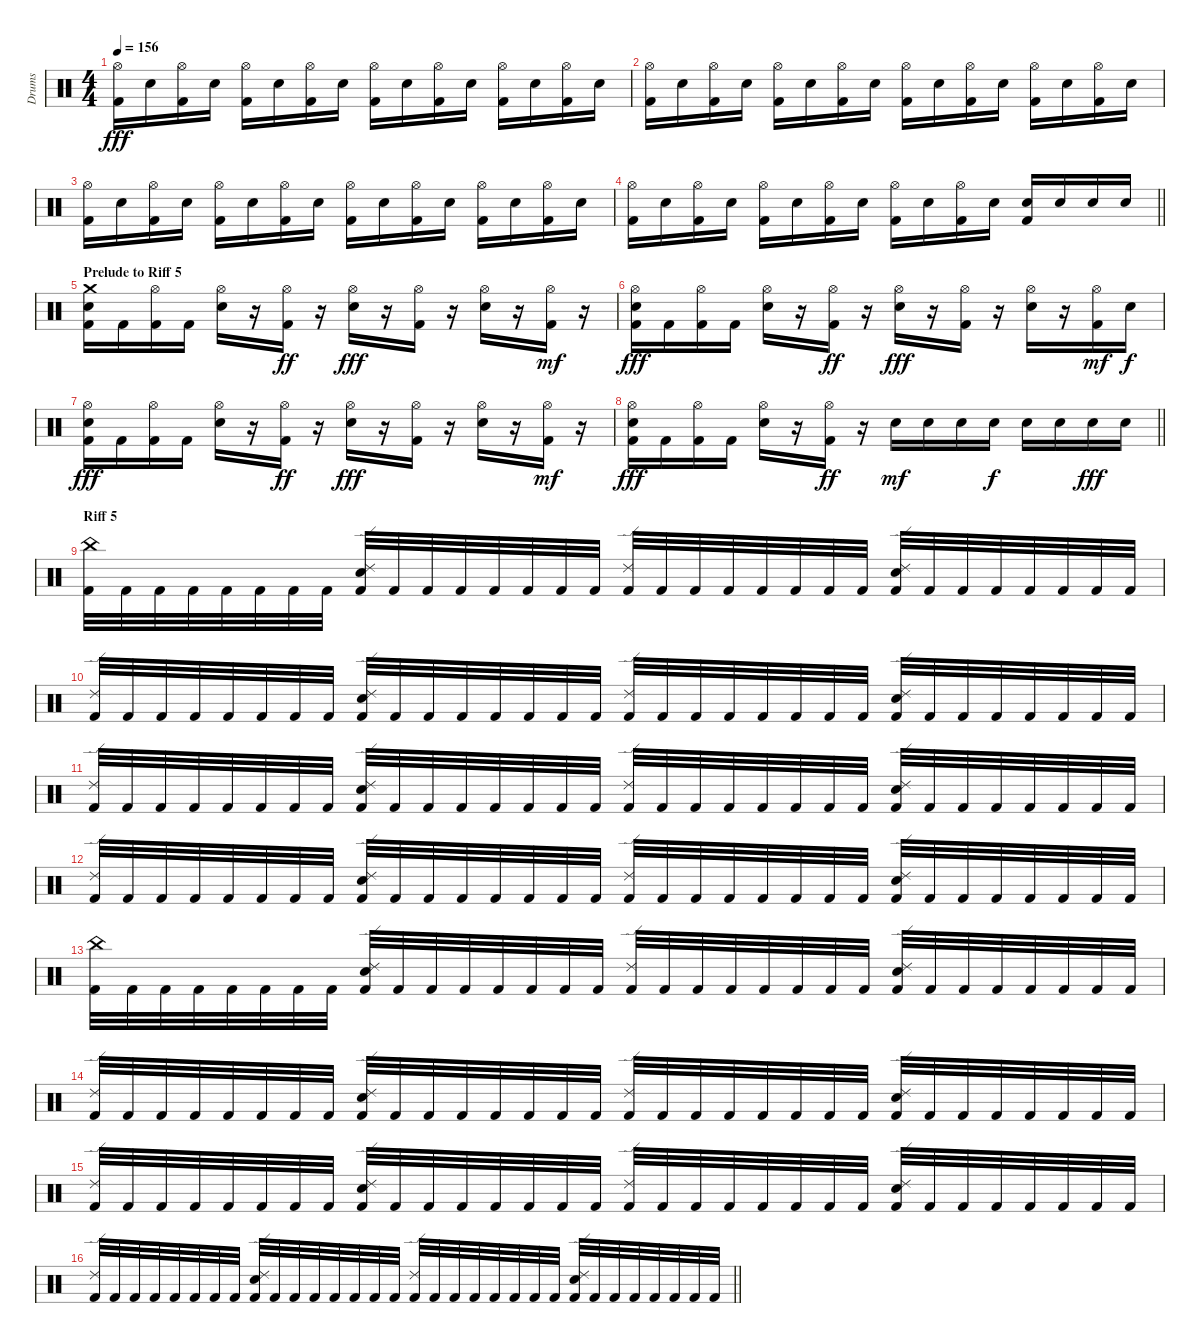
\track ("Drums" "Drums") {instrument percussion}
\staff {score}
\articulation defaults
\ts (4 4)
\tempo 156
\clef neutral
\ks c
("Kick (hit) 2" "Hi-Hat (open)").16{dy fff} "Snare (hit) 2".16 ("Kick (hit) 2" "Hi-Hat (open)").16 "Snare (hit) 2".16 ("Kick (hit) 2" "Hi-Hat (open)").16 "Snare (hit) 2".16 ("Kick (hit) 2" "Hi-Hat (open)").16 "Snare (hit) 2".16 ("Kick (hit) 2" "Hi-Hat (open)").16 "Snare (hit) 2".16 ("Kick (hit) 2" "Hi-Hat (open)").16 "Snare (hit) 2".16 ("Kick (hit) 2" "Hi-Hat (open)").16 "Snare (hit) 2".16 ("Kick (hit) 2" "Hi-Hat (open)").16 "Snare (hit) 2".16 |
("Kick (hit) 2" "Hi-Hat (open)").16 "Snare (hit) 2".16 ("Kick (hit) 2" "Hi-Hat (open)").16 "Snare (hit) 2".16 ("Kick (hit) 2" "Hi-Hat (open)").16 "Snare (hit) 2".16 ("Kick (hit) 2" "Hi-Hat (open)").16 "Snare (hit) 2".16 ("Kick (hit) 2" "Hi-Hat (open)").16 "Snare (hit) 2".16 ("Kick (hit) 2" "Hi-Hat (open)").16 "Snare (hit) 2".16 ("Kick (hit) 2" "Hi-Hat (open)").16 "Snare (hit) 2".16 ("Kick (hit) 2" "Hi-Hat (open)").16 "Snare (hit) 2".16 |
("Kick (hit) 2" "Hi-Hat (open)").16 "Snare (hit) 2".16 ("Kick (hit) 2" "Hi-Hat (open)").16 "Snare (hit) 2".16 ("Kick (hit) 2" "Hi-Hat (open)").16 "Snare (hit) 2".16 ("Kick (hit) 2" "Hi-Hat (open)").16 "Snare (hit) 2".16 ("Kick (hit) 2" "Hi-Hat (open)").16 "Snare (hit) 2".16 ("Kick (hit) 2" "Hi-Hat (open)").16 "Snare (hit) 2".16 ("Kick (hit) 2" "Hi-Hat (open)").16 "Snare (hit) 2".16 ("Kick (hit) 2" "Hi-Hat (open)").16 "Snare (hit) 2".16 |
\barLineRight lightlight
("Kick (hit) 2" "Hi-Hat (open)").16 "Snare (hit) 2".16 ("Kick (hit) 2" "Hi-Hat (open)").16 "Snare (hit) 2".16 ("Kick (hit) 2" "Hi-Hat (open)").16 "Snare (hit) 2".16 ("Kick (hit) 2" "Hi-Hat (open)").16 "Snare (hit) 2".16 ("Kick (hit) 2" "Hi-Hat (open)").16 "Snare (hit) 2".16 ("Kick (hit) 2" "Hi-Hat (open)").16 "Snare (hit) 2".16 ("Kick (hit) 2" "Snare (hit) 2").16 "Snare (hit) 2".16 "Snare (hit) 2".16 "Snare (hit) 2".16 |
\section ("" "Prelude to Riff 5")
("Kick (hit) 2" "Snare (hit) 2" "Crash medium (hit)").16 "Kick (hit) 2".16 ("Kick (hit) 2" "Hi-Hat (open)").16 "Kick (hit) 2".16 ("Snare (hit) 2" "Hi-Hat (open)").16 r.16 ("Kick (hit) 2" "Hi-Hat (open)").16{dy ff} r.16 ("Snare (hit) 2" "Hi-Hat (open)").16{dy fff} r.16 ("Kick (hit) 2" "Hi-Hat (open)").16 r.16 ("Snare (hit) 2" "Hi-Hat (open)").16 r.16 ("Kick (hit) 2" "Hi-Hat (open)").16{dy mf} r.16 |
("Kick (hit) 2" "Snare (hit) 2" "Hi-Hat (open)").16{dy fff} "Kick (hit) 2".16 ("Kick (hit) 2" "Hi-Hat (open)").16 "Kick (hit) 2".16 ("Snare (hit) 2" "Hi-Hat (open)").16 r.16 ("Kick (hit) 2" "Hi-Hat (open)").16{dy ff} r.16 ("Snare (hit) 2" "Hi-Hat (open)").16{dy fff} r.16 ("Kick (hit) 2" "Hi-Hat (open)").16 r.16 ("Snare (hit) 2" "Hi-Hat (open)").16 r.16 ("Kick (hit) 2" "Hi-Hat (open)").16{dy mf} "Snare (hit) 2".16{dy f} |
("Kick (hit) 2" "Snare (hit) 2" "Hi-Hat (open)").16{dy fff} "Kick (hit) 2".16 ("Kick (hit) 2" "Hi-Hat (open)").16 "Kick (hit) 2".16 ("Snare (hit) 2" "Hi-Hat (open)").16 r.16 ("Kick (hit) 2" "Hi-Hat (open)").16{dy ff} r.16 ("Snare (hit) 2" "Hi-Hat (open)").16{dy fff} r.16 ("Kick (hit) 2" "Hi-Hat (open)").16 r.16 ("Snare (hit) 2" "Hi-Hat (open)").16 r.16 ("Kick (hit) 2" "Hi-Hat (open)").16{dy mf} r.16 |
\barLineRight lightlight
("Kick (hit) 2" "Snare (hit) 2" "Hi-Hat (open)").16{dy fff} "Kick (hit) 2".16 ("Kick (hit) 2" "Hi-Hat (open)").16 "Kick (hit) 2".16 ("Snare (hit) 2" "Hi-Hat (open)").16 r.16 ("Kick (hit) 2" "Hi-Hat (open)").16{dy ff} r.16 "Snare (hit) 2".16{dy mf} "Snare (hit) 2".16 "Snare (hit) 2".16 "Snare (hit) 2".16{dy f} "Snare (hit) 2".16 "Snare (hit) 2".16 "Snare (hit) 2".16{dy fff} "Snare (hit) 2".16 |
\section ("" "Riff 5")
("Kick (hit) 2" "China (hit)").32 "Kick (hit) 2".32 "Kick (hit) 2".32 "Kick (hit) 2".32 "Kick (hit) 2".32 "Kick (hit) 2".32 "Kick (hit) 2".32 "Kick (hit) 2".32 ("Kick (hit) 2" "Snare (hit) 2" "Ride (edge) 2").32 "Kick (hit) 2".32 "Kick (hit) 2".32 "Kick (hit) 2".32 "Kick (hit) 2".32 "Kick (hit) 2".32 "Kick (hit) 2".32 "Kick (hit) 2".32 ("Kick (hit) 2" "Ride (edge) 2").32 "Kick (hit) 2".32 "Kick (hit) 2".32 "Kick (hit) 2".32 "Kick (hit) 2".32 "Kick (hit) 2".32 "Kick (hit) 2".32 "Kick (hit) 2".32 ("Kick (hit) 2" "Snare (hit) 2" "Ride (edge) 2").32 "Kick (hit) 2".32 "Kick (hit) 2".32 "Kick (hit) 2".32 "Kick (hit) 2".32 "Kick (hit) 2".32 "Kick (hit) 2".32 "Kick (hit) 2".32 |
("Kick (hit) 2" "Ride (edge) 2").32 "Kick (hit) 2".32 "Kick (hit) 2".32 "Kick (hit) 2".32 "Kick (hit) 2".32 "Kick (hit) 2".32 "Kick (hit) 2".32 "Kick (hit) 2".32 ("Kick (hit) 2" "Snare (hit) 2" "Ride (edge) 2").32 "Kick (hit) 2".32 "Kick (hit) 2".32 "Kick (hit) 2".32 "Kick (hit) 2".32 "Kick (hit) 2".32 "Kick (hit) 2".32 "Kick (hit) 2".32 ("Kick (hit) 2" "Ride (edge) 2").32 "Kick (hit) 2".32 "Kick (hit) 2".32 "Kick (hit) 2".32 "Kick (hit) 2".32 "Kick (hit) 2".32 "Kick (hit) 2".32 "Kick (hit) 2".32 ("Kick (hit) 2" "Snare (hit) 2" "Ride (edge) 2").32 "Kick (hit) 2".32 "Kick (hit) 2".32 "Kick (hit) 2".32 "Kick (hit) 2".32 "Kick (hit) 2".32 "Kick (hit) 2".32 "Kick (hit) 2".32 |
("Kick (hit) 2" "Ride (edge) 2").32 "Kick (hit) 2".32 "Kick (hit) 2".32 "Kick (hit) 2".32 "Kick (hit) 2".32 "Kick (hit) 2".32 "Kick (hit) 2".32 "Kick (hit) 2".32 ("Kick (hit) 2" "Snare (hit) 2" "Ride (edge) 2").32 "Kick (hit) 2".32 "Kick (hit) 2".32 "Kick (hit) 2".32 "Kick (hit) 2".32 "Kick (hit) 2".32 "Kick (hit) 2".32 "Kick (hit) 2".32 ("Kick (hit) 2" "Ride (edge) 2").32 "Kick (hit) 2".32 "Kick (hit) 2".32 "Kick (hit) 2".32 "Kick (hit) 2".32 "Kick (hit) 2".32 "Kick (hit) 2".32 "Kick (hit) 2".32 ("Kick (hit) 2" "Snare (hit) 2" "Ride (edge) 2").32 "Kick (hit) 2".32 "Kick (hit) 2".32 "Kick (hit) 2".32 "Kick (hit) 2".32 "Kick (hit) 2".32 "Kick (hit) 2".32 "Kick (hit) 2".32 |
("Kick (hit) 2" "Ride (edge) 2").32 "Kick (hit) 2".32 "Kick (hit) 2".32 "Kick (hit) 2".32 "Kick (hit) 2".32 "Kick (hit) 2".32 "Kick (hit) 2".32 "Kick (hit) 2".32 ("Kick (hit) 2" "Snare (hit) 2" "Ride (edge) 2").32 "Kick (hit) 2".32 "Kick (hit) 2".32 "Kick (hit) 2".32 "Kick (hit) 2".32 "Kick (hit) 2".32 "Kick (hit) 2".32 "Kick (hit) 2".32 ("Kick (hit) 2" "Ride (edge) 2").32 "Kick (hit) 2".32 "Kick (hit) 2".32 "Kick (hit) 2".32 "Kick (hit) 2".32 "Kick (hit) 2".32 "Kick (hit) 2".32 "Kick (hit) 2".32 ("Kick (hit) 2" "Snare (hit) 2" "Ride (edge) 2").32 "Kick (hit) 2".32 "Kick (hit) 2".32 "Kick (hit) 2".32 "Kick (hit) 2".32 "Kick (hit) 2".32 "Kick (hit) 2".32 "Kick (hit) 2".32 |
("Kick (hit) 2" "China (hit)").32 "Kick (hit) 2".32 "Kick (hit) 2".32 "Kick (hit) 2".32 "Kick (hit) 2".32 "Kick (hit) 2".32 "Kick (hit) 2".32 "Kick (hit) 2".32 ("Kick (hit) 2" "Snare (hit) 2" "Ride (edge) 2").32 "Kick (hit) 2".32 "Kick (hit) 2".32 "Kick (hit) 2".32 "Kick (hit) 2".32 "Kick (hit) 2".32 "Kick (hit) 2".32 "Kick (hit) 2".32 ("Kick (hit) 2" "Ride (edge) 2").32 "Kick (hit) 2".32 "Kick (hit) 2".32 "Kick (hit) 2".32 "Kick (hit) 2".32 "Kick (hit) 2".32 "Kick (hit) 2".32 "Kick (hit) 2".32 ("Kick (hit) 2" "Snare (hit) 2" "Ride (edge) 2").32 "Kick (hit) 2".32 "Kick (hit) 2".32 "Kick (hit) 2".32 "Kick (hit) 2".32 "Kick (hit) 2".32 "Kick (hit) 2".32 "Kick (hit) 2".32 |
("Kick (hit) 2" "Ride (edge) 2").32 "Kick (hit) 2".32 "Kick (hit) 2".32 "Kick (hit) 2".32 "Kick (hit) 2".32 "Kick (hit) 2".32 "Kick (hit) 2".32 "Kick (hit) 2".32 ("Kick (hit) 2" "Snare (hit) 2" "Ride (edge) 2").32 "Kick (hit) 2".32 "Kick (hit) 2".32 "Kick (hit) 2".32 "Kick (hit) 2".32 "Kick (hit) 2".32 "Kick (hit) 2".32 "Kick (hit) 2".32 ("Kick (hit) 2" "Ride (edge) 2").32 "Kick (hit) 2".32 "Kick (hit) 2".32 "Kick (hit) 2".32 "Kick (hit) 2".32 "Kick (hit) 2".32 "Kick (hit) 2".32 "Kick (hit) 2".32 ("Kick (hit) 2" "Snare (hit) 2" "Ride (edge) 2").32 "Kick (hit) 2".32 "Kick (hit) 2".32 "Kick (hit) 2".32 "Kick (hit) 2".32 "Kick (hit) 2".32 "Kick (hit) 2".32 "Kick (hit) 2".32 |
("Kick (hit) 2" "Ride (edge) 2").32 "Kick (hit) 2".32 "Kick (hit) 2".32 "Kick (hit) 2".32 "Kick (hit) 2".32 "Kick (hit) 2".32 "Kick (hit) 2".32 "Kick (hit) 2".32 ("Kick (hit) 2" "Snare (hit) 2" "Ride (edge) 2").32 "Kick (hit) 2".32 "Kick (hit) 2".32 "Kick (hit) 2".32 "Kick (hit) 2".32 "Kick (hit) 2".32 "Kick (hit) 2".32 "Kick (hit) 2".32 ("Kick (hit) 2" "Ride (edge) 2").32 "Kick (hit) 2".32 "Kick (hit) 2".32 "Kick (hit) 2".32 "Kick (hit) 2".32 "Kick (hit) 2".32 "Kick (hit) 2".32 "Kick (hit) 2".32 ("Kick (hit) 2" "Snare (hit) 2" "Ride (edge) 2").32 "Kick (hit) 2".32 "Kick (hit) 2".32 "Kick (hit) 2".32 "Kick (hit) 2".32 "Kick (hit) 2".32 "Kick (hit) 2".32 "Kick (hit) 2".32 |
\barLineRight lightlight
("Kick (hit) 2" "Ride (edge) 2").32 "Kick (hit) 2".32 "Kick (hit) 2".32 "Kick (hit) 2".32 "Kick (hit) 2".32 "Kick (hit) 2".32 "Kick (hit) 2".32 "Kick (hit) 2".32 ("Kick (hit) 2" "Snare (hit) 2" "Ride (edge) 2").32 "Kick (hit) 2".32 "Kick (hit) 2".32 "Kick (hit) 2".32 "Kick (hit) 2".32 "Kick (hit) 2".32 "Kick (hit) 2".32 "Kick (hit) 2".32 ("Kick (hit) 2" "Ride (edge) 2").32 "Kick (hit) 2".32 "Kick (hit) 2".32 "Kick (hit) 2".32 "Kick (hit) 2".32 "Kick (hit) 2".32 "Kick (hit) 2".32 "Kick (hit) 2".32 ("Kick (hit) 2" "Snare (hit) 2" "Ride (edge) 2").32 "Kick (hit) 2".32 "Kick (hit) 2".32 "Kick (hit) 2".32 "Kick (hit) 2".32 "Kick (hit) 2".32 "Kick (hit) 2".32 "Kick (hit) 2".32
